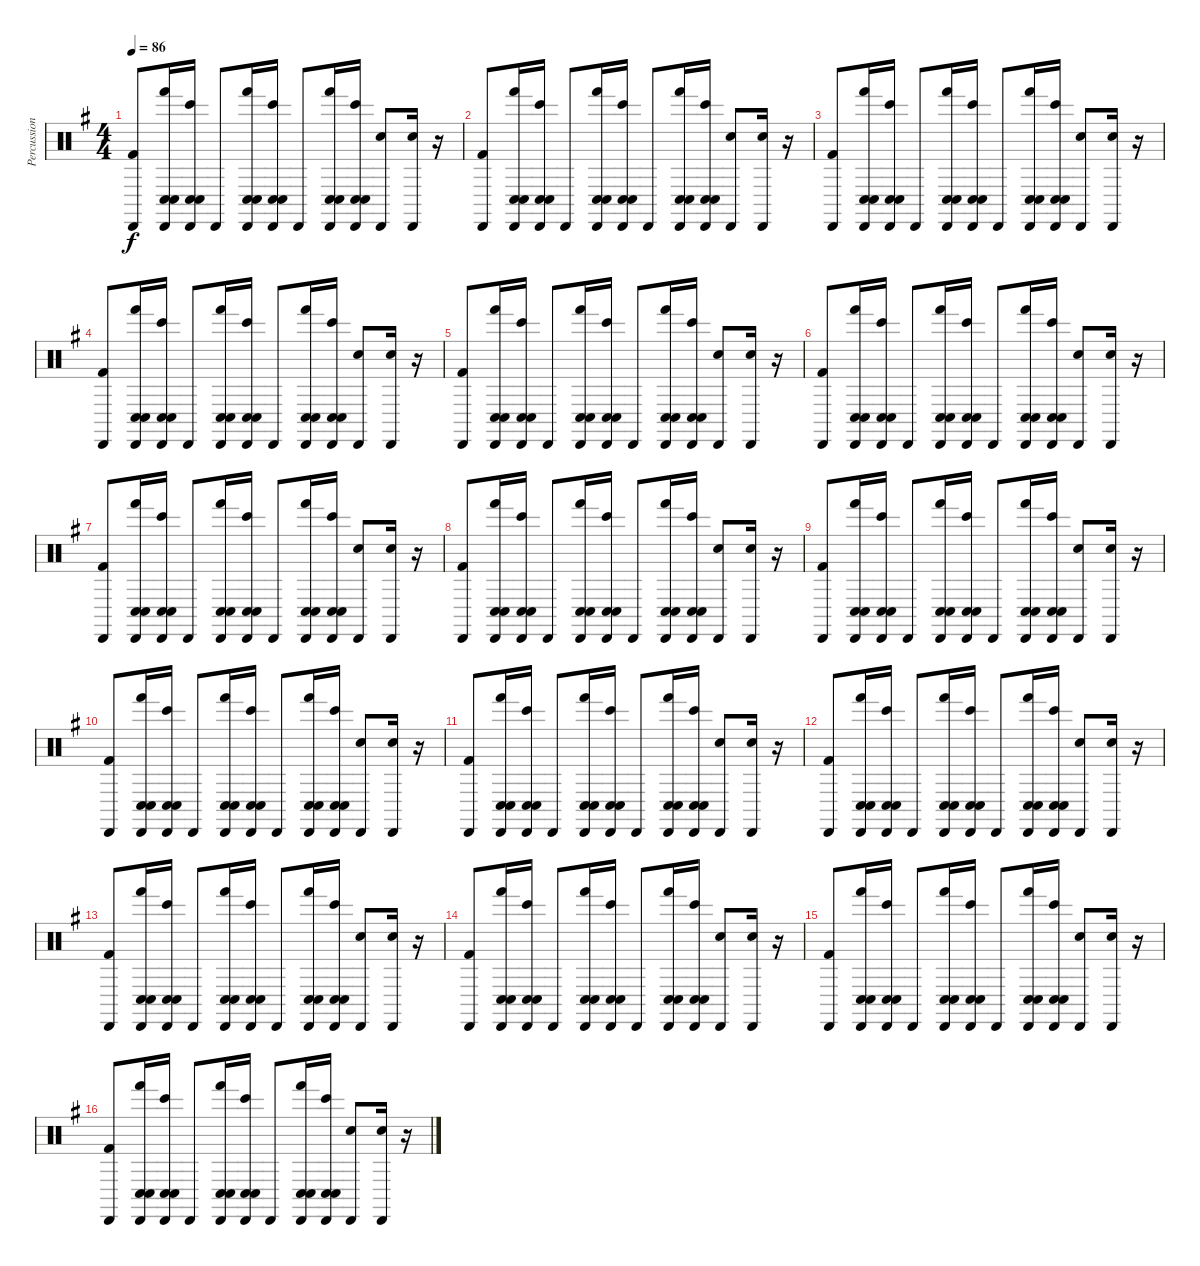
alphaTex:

\track ("Percussion" "Percussion") {instrument percussion}
\staff {score}
\articulation defaults
\ts (4 4)
\tempo 86
\clef neutral
\ks g
("Cabasa (hit)" "Kick (hit) 2").8{dy f} ("Cabasa (hit)" "Conga low (hit)" "Conga low (hit)" "Hand (hit)").16 ("Cabasa (hit)" "Conga low (hit)" "Conga low (hit)" "Bongo High (hit)").16 "Cabasa (hit)".8 ("Cabasa (hit)" "Conga low (hit)" "Conga low (hit)" "Hand (hit)").16 ("Cabasa (hit)" "Conga low (hit)" "Conga low (hit)" "Bongo High (hit)").16 "Cabasa (hit)".8 ("Cabasa (hit)" "Conga low (hit)" "Conga low (hit)" "Hand (hit)").16 ("Cabasa (hit)" "Conga low (hit)" "Conga low (hit)" "Bongo High (hit)").16 ("Cabasa (hit)" "Electric Snare (hit)").8 ("Cabasa (hit)" "Electric Snare (hit)").16 r.16 |
("Cabasa (hit)" "Kick (hit) 2").8 ("Cabasa (hit)" "Conga low (hit)" "Conga low (hit)" "Hand (hit)").16 ("Cabasa (hit)" "Conga low (hit)" "Conga low (hit)" "Bongo High (hit)").16 "Cabasa (hit)".8 ("Cabasa (hit)" "Conga low (hit)" "Conga low (hit)" "Hand (hit)").16 ("Cabasa (hit)" "Conga low (hit)" "Conga low (hit)" "Bongo High (hit)").16 "Cabasa (hit)".8 ("Cabasa (hit)" "Conga low (hit)" "Conga low (hit)" "Hand (hit)").16 ("Cabasa (hit)" "Conga low (hit)" "Conga low (hit)" "Bongo High (hit)").16 ("Cabasa (hit)" "Electric Snare (hit)").8 ("Cabasa (hit)" "Electric Snare (hit)").16 r.16 |
("Cabasa (hit)" "Kick (hit) 2").8 ("Cabasa (hit)" "Conga low (hit)" "Conga low (hit)" "Hand (hit)").16 ("Cabasa (hit)" "Conga low (hit)" "Conga low (hit)" "Bongo High (hit)").16 "Cabasa (hit)".8 ("Cabasa (hit)" "Conga low (hit)" "Conga low (hit)" "Hand (hit)").16 ("Cabasa (hit)" "Conga low (hit)" "Conga low (hit)" "Bongo High (hit)").16 "Cabasa (hit)".8 ("Cabasa (hit)" "Conga low (hit)" "Conga low (hit)" "Hand (hit)").16 ("Cabasa (hit)" "Conga low (hit)" "Conga low (hit)" "Bongo High (hit)").16 ("Cabasa (hit)" "Electric Snare (hit)").8 ("Cabasa (hit)" "Electric Snare (hit)").16 r.16 |
("Cabasa (hit)" "Kick (hit) 2").8 ("Cabasa (hit)" "Conga low (hit)" "Conga low (hit)" "Hand (hit)").16 ("Cabasa (hit)" "Conga low (hit)" "Conga low (hit)" "Bongo High (hit)").16 "Cabasa (hit)".8 ("Cabasa (hit)" "Conga low (hit)" "Conga low (hit)" "Hand (hit)").16 ("Cabasa (hit)" "Conga low (hit)" "Conga low (hit)" "Bongo High (hit)").16 "Cabasa (hit)".8 ("Cabasa (hit)" "Conga low (hit)" "Conga low (hit)" "Hand (hit)").16 ("Cabasa (hit)" "Conga low (hit)" "Conga low (hit)" "Bongo High (hit)").16 ("Cabasa (hit)" "Electric Snare (hit)").8 ("Cabasa (hit)" "Electric Snare (hit)").16 r.16 |
("Cabasa (hit)" "Kick (hit) 2").8 ("Cabasa (hit)" "Conga low (hit)" "Conga low (hit)" "Hand (hit)").16 ("Cabasa (hit)" "Conga low (hit)" "Conga low (hit)" "Bongo High (hit)").16 "Cabasa (hit)".8 ("Cabasa (hit)" "Conga low (hit)" "Conga low (hit)" "Hand (hit)").16 ("Cabasa (hit)" "Conga low (hit)" "Conga low (hit)" "Bongo High (hit)").16 "Cabasa (hit)".8 ("Cabasa (hit)" "Conga low (hit)" "Conga low (hit)" "Hand (hit)").16 ("Cabasa (hit)" "Conga low (hit)" "Conga low (hit)" "Bongo High (hit)").16 ("Cabasa (hit)" "Electric Snare (hit)").8 ("Cabasa (hit)" "Electric Snare (hit)").16 r.16 |
("Cabasa (hit)" "Kick (hit) 2").8 ("Cabasa (hit)" "Conga low (hit)" "Conga low (hit)" "Hand (hit)").16 ("Cabasa (hit)" "Conga low (hit)" "Conga low (hit)" "Bongo High (hit)").16 "Cabasa (hit)".8 ("Cabasa (hit)" "Conga low (hit)" "Conga low (hit)" "Hand (hit)").16 ("Cabasa (hit)" "Conga low (hit)" "Conga low (hit)" "Bongo High (hit)").16 "Cabasa (hit)".8 ("Cabasa (hit)" "Conga low (hit)" "Conga low (hit)" "Hand (hit)").16 ("Cabasa (hit)" "Conga low (hit)" "Conga low (hit)" "Bongo High (hit)").16 ("Cabasa (hit)" "Electric Snare (hit)").8 ("Cabasa (hit)" "Electric Snare (hit)").16 r.16 |
("Cabasa (hit)" "Kick (hit) 2").8 ("Cabasa (hit)" "Conga low (hit)" "Conga low (hit)" "Hand (hit)").16 ("Cabasa (hit)" "Conga low (hit)" "Conga low (hit)" "Bongo High (hit)").16 "Cabasa (hit)".8 ("Cabasa (hit)" "Conga low (hit)" "Conga low (hit)" "Hand (hit)").16 ("Cabasa (hit)" "Conga low (hit)" "Conga low (hit)" "Bongo High (hit)").16 "Cabasa (hit)".8 ("Cabasa (hit)" "Conga low (hit)" "Conga low (hit)" "Hand (hit)").16 ("Cabasa (hit)" "Conga low (hit)" "Conga low (hit)" "Bongo High (hit)").16 ("Cabasa (hit)" "Electric Snare (hit)").8 ("Cabasa (hit)" "Electric Snare (hit)").16 r.16 |
("Cabasa (hit)" "Kick (hit) 2").8 ("Cabasa (hit)" "Conga low (hit)" "Conga low (hit)" "Hand (hit)").16 ("Cabasa (hit)" "Conga low (hit)" "Conga low (hit)" "Bongo High (hit)").16 "Cabasa (hit)".8 ("Cabasa (hit)" "Conga low (hit)" "Conga low (hit)" "Hand (hit)").16 ("Cabasa (hit)" "Conga low (hit)" "Conga low (hit)" "Bongo High (hit)").16 "Cabasa (hit)".8 ("Cabasa (hit)" "Conga low (hit)" "Conga low (hit)" "Hand (hit)").16 ("Cabasa (hit)" "Conga low (hit)" "Conga low (hit)" "Bongo High (hit)").16 ("Cabasa (hit)" "Electric Snare (hit)").8 ("Cabasa (hit)" "Electric Snare (hit)").16 r.16 |
("Cabasa (hit)" "Kick (hit) 2").8 ("Cabasa (hit)" "Conga low (hit)" "Conga low (hit)" "Hand (hit)").16 ("Cabasa (hit)" "Conga low (hit)" "Conga low (hit)" "Bongo High (hit)").16 "Cabasa (hit)".8 ("Cabasa (hit)" "Conga low (hit)" "Conga low (hit)" "Hand (hit)").16 ("Cabasa (hit)" "Conga low (hit)" "Conga low (hit)" "Bongo High (hit)").16 "Cabasa (hit)".8 ("Cabasa (hit)" "Conga low (hit)" "Conga low (hit)" "Hand (hit)").16 ("Cabasa (hit)" "Conga low (hit)" "Conga low (hit)" "Bongo High (hit)").16 ("Cabasa (hit)" "Electric Snare (hit)").8 ("Cabasa (hit)" "Electric Snare (hit)").16 r.16 |
("Cabasa (hit)" "Kick (hit) 2").8 ("Cabasa (hit)" "Conga low (hit)" "Conga low (hit)" "Hand (hit)").16 ("Cabasa (hit)" "Conga low (hit)" "Conga low (hit)" "Bongo High (hit)").16 "Cabasa (hit)".8 ("Cabasa (hit)" "Conga low (hit)" "Conga low (hit)" "Hand (hit)").16 ("Cabasa (hit)" "Conga low (hit)" "Conga low (hit)" "Bongo High (hit)").16 "Cabasa (hit)".8 ("Cabasa (hit)" "Conga low (hit)" "Conga low (hit)" "Hand (hit)").16 ("Cabasa (hit)" "Conga low (hit)" "Conga low (hit)" "Bongo High (hit)").16 ("Cabasa (hit)" "Electric Snare (hit)").8 ("Cabasa (hit)" "Electric Snare (hit)").16 r.16 |
("Cabasa (hit)" "Kick (hit) 2").8 ("Cabasa (hit)" "Conga low (hit)" "Conga low (hit)" "Hand (hit)").16 ("Cabasa (hit)" "Conga low (hit)" "Conga low (hit)" "Bongo High (hit)").16 "Cabasa (hit)".8 ("Cabasa (hit)" "Conga low (hit)" "Conga low (hit)" "Hand (hit)").16 ("Cabasa (hit)" "Conga low (hit)" "Conga low (hit)" "Bongo High (hit)").16 "Cabasa (hit)".8 ("Cabasa (hit)" "Conga low (hit)" "Conga low (hit)" "Hand (hit)").16 ("Cabasa (hit)" "Conga low (hit)" "Conga low (hit)" "Bongo High (hit)").16 ("Cabasa (hit)" "Electric Snare (hit)").8 ("Cabasa (hit)" "Electric Snare (hit)").16 r.16 |
("Cabasa (hit)" "Kick (hit) 2").8 ("Cabasa (hit)" "Conga low (hit)" "Conga low (hit)" "Hand (hit)").16 ("Cabasa (hit)" "Conga low (hit)" "Conga low (hit)" "Bongo High (hit)").16 "Cabasa (hit)".8 ("Cabasa (hit)" "Conga low (hit)" "Conga low (hit)" "Hand (hit)").16 ("Cabasa (hit)" "Conga low (hit)" "Conga low (hit)" "Bongo High (hit)").16 "Cabasa (hit)".8 ("Cabasa (hit)" "Conga low (hit)" "Conga low (hit)" "Hand (hit)").16 ("Cabasa (hit)" "Conga low (hit)" "Conga low (hit)" "Bongo High (hit)").16 ("Cabasa (hit)" "Electric Snare (hit)").8 ("Cabasa (hit)" "Electric Snare (hit)").16 r.16 |
("Cabasa (hit)" "Kick (hit) 2").8 ("Cabasa (hit)" "Conga low (hit)" "Conga low (hit)" "Hand (hit)").16 ("Cabasa (hit)" "Conga low (hit)" "Conga low (hit)" "Bongo High (hit)").16 "Cabasa (hit)".8 ("Cabasa (hit)" "Conga low (hit)" "Conga low (hit)" "Hand (hit)").16 ("Cabasa (hit)" "Conga low (hit)" "Conga low (hit)" "Bongo High (hit)").16 "Cabasa (hit)".8 ("Cabasa (hit)" "Conga low (hit)" "Conga low (hit)" "Hand (hit)").16 ("Cabasa (hit)" "Conga low (hit)" "Conga low (hit)" "Bongo High (hit)").16 ("Cabasa (hit)" "Electric Snare (hit)").8 ("Cabasa (hit)" "Electric Snare (hit)").16 r.16 |
("Cabasa (hit)" "Kick (hit) 2").8 ("Cabasa (hit)" "Conga low (hit)" "Conga low (hit)" "Hand (hit)").16 ("Cabasa (hit)" "Conga low (hit)" "Conga low (hit)" "Bongo High (hit)").16 "Cabasa (hit)".8 ("Cabasa (hit)" "Conga low (hit)" "Conga low (hit)" "Hand (hit)").16 ("Cabasa (hit)" "Conga low (hit)" "Conga low (hit)" "Bongo High (hit)").16 "Cabasa (hit)".8 ("Cabasa (hit)" "Conga low (hit)" "Conga low (hit)" "Hand (hit)").16 ("Cabasa (hit)" "Conga low (hit)" "Conga low (hit)" "Bongo High (hit)").16 ("Cabasa (hit)" "Electric Snare (hit)").8 ("Cabasa (hit)" "Electric Snare (hit)").16 r.16 |
("Cabasa (hit)" "Kick (hit) 2").8 ("Cabasa (hit)" "Conga low (hit)" "Conga low (hit)" "Hand (hit)").16 ("Cabasa (hit)" "Conga low (hit)" "Conga low (hit)" "Bongo High (hit)").16 "Cabasa (hit)".8 ("Cabasa (hit)" "Conga low (hit)" "Conga low (hit)" "Hand (hit)").16 ("Cabasa (hit)" "Conga low (hit)" "Conga low (hit)" "Bongo High (hit)").16 "Cabasa (hit)".8 ("Cabasa (hit)" "Conga low (hit)" "Conga low (hit)" "Hand (hit)").16 ("Cabasa (hit)" "Conga low (hit)" "Conga low (hit)" "Bongo High (hit)").16 ("Cabasa (hit)" "Electric Snare (hit)").8 ("Cabasa (hit)" "Electric Snare (hit)").16 r.16 |
("Cabasa (hit)" "Kick (hit) 2").8 ("Cabasa (hit)" "Conga low (hit)" "Conga low (hit)" "Hand (hit)").16 ("Cabasa (hit)" "Conga low (hit)" "Conga low (hit)" "Bongo High (hit)").16 "Cabasa (hit)".8 ("Cabasa (hit)" "Conga low (hit)" "Conga low (hit)" "Hand (hit)").16 ("Cabasa (hit)" "Conga low (hit)" "Conga low (hit)" "Bongo High (hit)").16 "Cabasa (hit)".8 ("Cabasa (hit)" "Conga low (hit)" "Conga low (hit)" "Hand (hit)").16 ("Cabasa (hit)" "Conga low (hit)" "Conga low (hit)" "Bongo High (hit)").16 ("Cabasa (hit)" "Electric Snare (hit)").8 ("Cabasa (hit)" "Electric Snare (hit)").16 r.16
